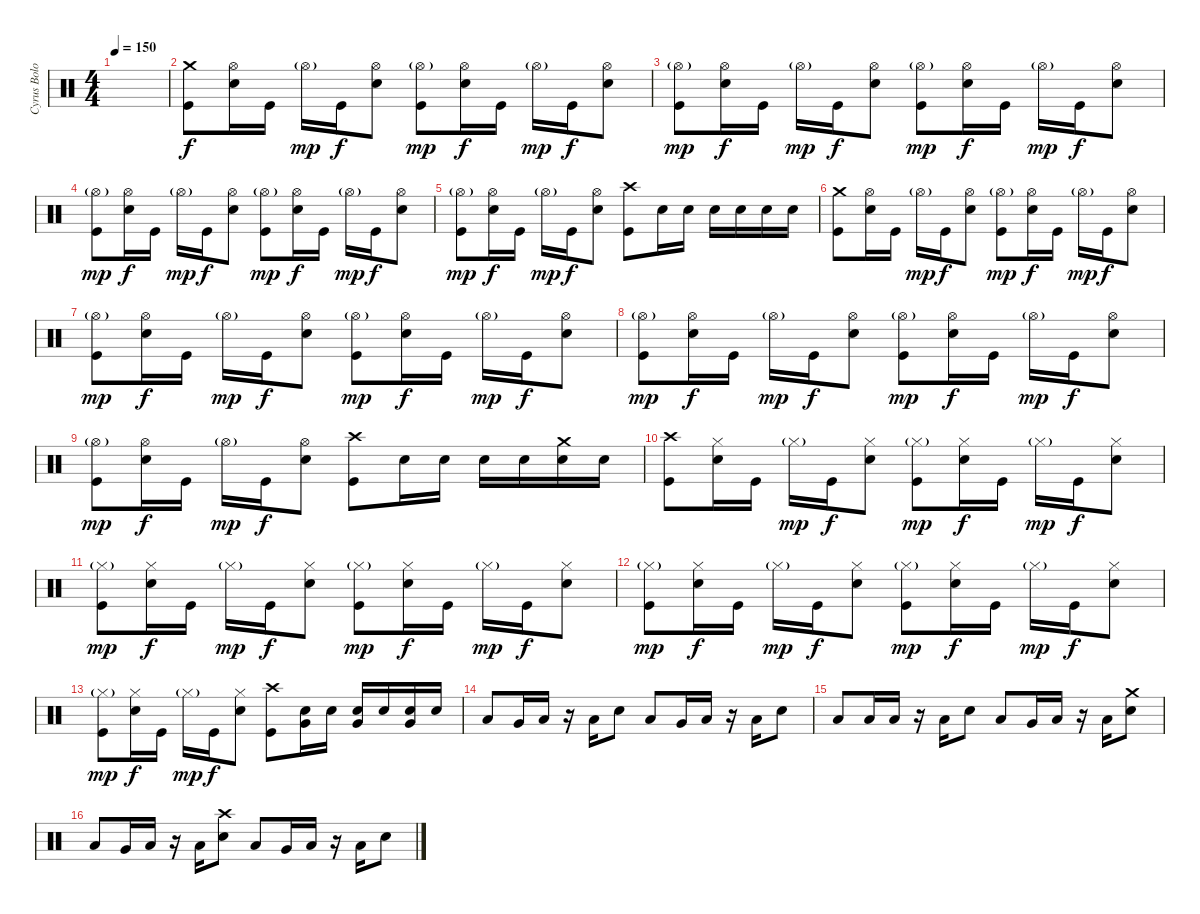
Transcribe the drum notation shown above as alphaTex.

\track ("Cyrus Bolooki - Drums" "Cyrus Bolo") {instrument percussion}
\staff {score}
\articulation defaults
\ts (4 4)
\tempo 150
\clef neutral
\ks c
|
("Crash medium (hit)" "Kick (hit)").8 ("Hi-Hat (open)" "Electric Snare (hit)").16 "Kick (hit)".16 "Hi-Hat (open)"{g}.16{dy mp} "Kick (hit)".16{dy f} ("Hi-Hat (open)" "Electric Snare (hit)").8 ("Hi-Hat (open)"{g} "Kick (hit)").8{dy mp} ("Hi-Hat (open)" "Electric Snare (hit)").16{dy f} "Kick (hit)".16 "Hi-Hat (open)"{g}.16{dy mp} "Kick (hit)".16{dy f} ("Hi-Hat (open)" "Electric Snare (hit)").8 |
("Hi-Hat (open)"{g} "Kick (hit)").8{dy mp} ("Hi-Hat (open)" "Electric Snare (hit)").16{dy f} "Kick (hit)".16 "Hi-Hat (open)"{g}.16{dy mp} "Kick (hit)".16{dy f} ("Hi-Hat (open)" "Electric Snare (hit)").8 ("Hi-Hat (open)"{g} "Kick (hit)").8{dy mp} ("Hi-Hat (open)" "Electric Snare (hit)").16{dy f} "Kick (hit)".16 "Hi-Hat (open)"{g}.16{dy mp} "Kick (hit)".16{dy f} ("Hi-Hat (open)" "Electric Snare (hit)").8 |
("Hi-Hat (open)"{g} "Kick (hit)").8{dy mp} ("Hi-Hat (open)" "Electric Snare (hit)").16{dy f} "Kick (hit)".16 "Hi-Hat (open)"{g}.16{dy mp} "Kick (hit)".16{dy f} ("Hi-Hat (open)" "Electric Snare (hit)").8 ("Hi-Hat (open)"{g} "Kick (hit)").8{dy mp} ("Hi-Hat (open)" "Electric Snare (hit)").16{dy f} "Kick (hit)".16 "Hi-Hat (open)"{g}.16{dy mp} "Kick (hit)".16{dy f} ("Hi-Hat (open)" "Electric Snare (hit)").8 |
("Hi-Hat (open)"{g} "Kick (hit)").8{dy mp} ("Hi-Hat (open)" "Electric Snare (hit)").16{dy f} "Kick (hit)".16 "Hi-Hat (open)"{g}.16{dy mp} "Kick (hit)".16{dy f} ("Hi-Hat (open)" "Electric Snare (hit)").8 ("Crash high (hit)" "Kick (hit)").8 "Electric Snare (hit)".16 "Electric Snare (hit)".16 "Electric Snare (hit)".16 "Electric Snare (hit)".16 "Electric Snare (hit)".16 "Electric Snare (hit)".16 |
("Crash medium (hit)" "Kick (hit)").8 ("Hi-Hat (open)" "Electric Snare (hit)").16 "Kick (hit)".16 "Hi-Hat (open)"{g}.16{dy mp} "Kick (hit)".16{dy f} ("Hi-Hat (open)" "Electric Snare (hit)").8 ("Hi-Hat (open)"{g} "Kick (hit)").8{dy mp} ("Hi-Hat (open)" "Electric Snare (hit)").16{dy f} "Kick (hit)".16 "Hi-Hat (open)"{g}.16{dy mp} "Kick (hit)".16{dy f} ("Hi-Hat (open)" "Electric Snare (hit)").8 |
("Hi-Hat (open)"{g} "Kick (hit)").8{dy mp} ("Hi-Hat (open)" "Electric Snare (hit)").16{dy f} "Kick (hit)".16 "Hi-Hat (open)"{g}.16{dy mp} "Kick (hit)".16{dy f} ("Hi-Hat (open)" "Electric Snare (hit)").8 ("Hi-Hat (open)"{g} "Kick (hit)").8{dy mp} ("Hi-Hat (open)" "Electric Snare (hit)").16{dy f} "Kick (hit)".16 "Hi-Hat (open)"{g}.16{dy mp} "Kick (hit)".16{dy f} ("Hi-Hat (open)" "Electric Snare (hit)").8 |
("Hi-Hat (open)"{g} "Kick (hit)").8{dy mp} ("Hi-Hat (open)" "Electric Snare (hit)").16{dy f} "Kick (hit)".16 "Hi-Hat (open)"{g}.16{dy mp} "Kick (hit)".16{dy f} ("Hi-Hat (open)" "Electric Snare (hit)").8 ("Hi-Hat (open)"{g} "Kick (hit)").8{dy mp} ("Hi-Hat (open)" "Electric Snare (hit)").16{dy f} "Kick (hit)".16 "Hi-Hat (open)"{g}.16{dy mp} "Kick (hit)".16{dy f} ("Hi-Hat (open)" "Electric Snare (hit)").8 |
("Hi-Hat (open)"{g} "Kick (hit)").8{dy mp} ("Hi-Hat (open)" "Electric Snare (hit)").16{dy f} "Kick (hit)".16 "Hi-Hat (open)"{g}.16{dy mp} "Kick (hit)".16{dy f} ("Hi-Hat (open)" "Electric Snare (hit)").8 ("Crash high (hit)" "Kick (hit)").8 "Electric Snare (hit)".16 "Electric Snare (hit)".16 "Electric Snare (hit)".16 "Electric Snare (hit)".16 ("Crash medium (hit)" "Electric Snare (hit)").16 "Electric Snare (hit)".16 |
("Crash high (hit)" "Kick (hit)").8 ("Hi-Hat (closed)" "Electric Snare (hit)").16 "Kick (hit)".16 "Hi-Hat (closed)"{g}.16{dy mp} "Kick (hit)".16{dy f} ("Hi-Hat (closed)" "Electric Snare (hit)").8 ("Hi-Hat (closed)"{g} "Kick (hit)").8{dy mp} ("Hi-Hat (closed)" "Electric Snare (hit)").16{dy f} "Kick (hit)".16 "Hi-Hat (closed)"{g}.16{dy mp} "Kick (hit)".16{dy f} ("Hi-Hat (closed)" "Electric Snare (hit)").8 |
("Hi-Hat (closed)"{g} "Kick (hit)").8{dy mp} ("Hi-Hat (closed)" "Electric Snare (hit)").16{dy f} "Kick (hit)".16 "Hi-Hat (closed)"{g}.16{dy mp} "Kick (hit)".16{dy f} ("Hi-Hat (closed)" "Electric Snare (hit)").8 ("Hi-Hat (closed)"{g} "Kick (hit)").8{dy mp} ("Hi-Hat (closed)" "Electric Snare (hit)").16{dy f} "Kick (hit)".16 "Hi-Hat (closed)"{g}.16{dy mp} "Kick (hit)".16{dy f} ("Hi-Hat (closed)" "Electric Snare (hit)").8 |
("Hi-Hat (closed)"{g} "Kick (hit)").8{dy mp} ("Hi-Hat (closed)" "Electric Snare (hit)").16{dy f} "Kick (hit)".16 "Hi-Hat (closed)"{g}.16{dy mp} "Kick (hit)".16{dy f} ("Hi-Hat (closed)" "Electric Snare (hit)").8 ("Hi-Hat (closed)"{g} "Kick (hit)").8{dy mp} ("Hi-Hat (closed)" "Electric Snare (hit)").16{dy f} "Kick (hit)".16 "Hi-Hat (closed)"{g}.16{dy mp} "Kick (hit)".16{dy f} ("Hi-Hat (closed)" "Electric Snare (hit)").8 |
("Hi-Hat (closed)"{g} "Kick (hit)").8{dy mp} ("Hi-Hat (closed)" "Electric Snare (hit)").16{dy f} "Kick (hit)".16 "Hi-Hat (closed)"{g}.16{dy mp} "Kick (hit)".16{dy f} ("Hi-Hat (closed)" "Electric Snare (hit)").8 ("Crash high (hit)" "Kick (hit)").8 ("Very Low Tom (hit)" "Electric Snare (hit)").16 "Electric Snare (hit)".16 ("Very Low Tom (hit)" "Electric Snare (hit)").16 "Electric Snare (hit)".16 ("Very Low Tom (hit)" "Electric Snare (hit)").16 "Electric Snare (hit)".16 |
"Low Floor Tom (hit)".8 "Very Low Tom (hit)".16 "Low Floor Tom (hit)".16 r.16 "Low Floor Tom (hit)".16 "Electric Snare (hit)".8 "Low Floor Tom (hit)".8 "Very Low Tom (hit)".16 "Low Floor Tom (hit)".16 r.16 "Low Floor Tom (hit)".16 "Electric Snare (hit)".8 |
"Low Floor Tom (hit)".8 "Low Tom (hit)".16 "Low Floor Tom (hit)".16 r.16 "Low Floor Tom (hit)".16 "Electric Snare (hit)".8 "Low Floor Tom (hit)".8 "Very Low Tom (hit)".16 "Low Floor Tom (hit)".16 r.16 "Low Floor Tom (hit)".16 ("Crash medium (hit)" "Electric Snare (hit)").8 |
"Low Floor Tom (hit)".8 "Very Low Tom (hit)".16 "Low Floor Tom (hit)".16 r.16 "Low Floor Tom (hit)".16 ("Crash high (hit)" "Electric Snare (hit)").8 "Low Floor Tom (hit)".8 "Very Low Tom (hit)".16 "Low Floor Tom (hit)".16 r.16 "Low Floor Tom (hit)".16 "Electric Snare (hit)".8
